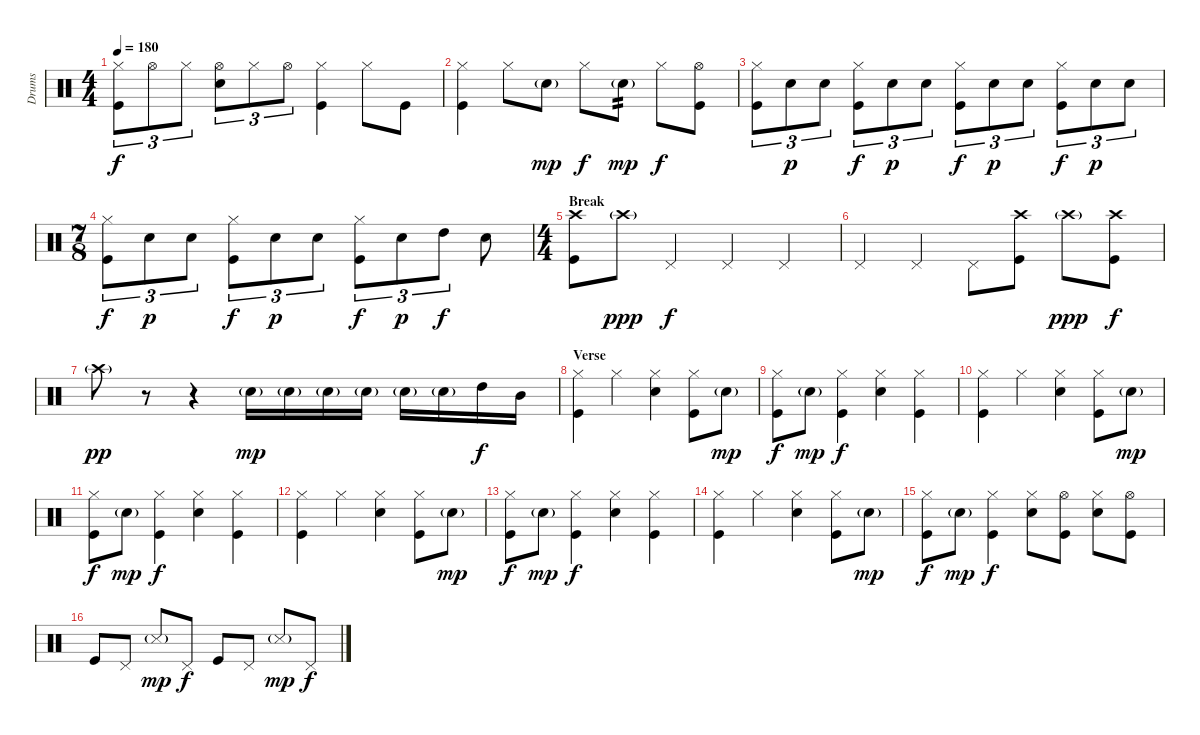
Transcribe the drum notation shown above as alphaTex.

\track ("Drums" "Drums") {instrument percussion}
\staff {score}
\articulation defaults
\ts (4 4)
\tempo 180
\clef neutral
\ks c
("Hi-Hat (closed)" "Kick (hit)").8{tu (3 2) dy f} "Hi-Hat (open)".8{tu (3 2)} "Hi-Hat (closed)".8{tu (3 2)} ("Hi-Hat (open)" "Electric Snare (hit)").8{tu (3 2)} "Hi-Hat (closed)".8{tu (3 2)} "Hi-Hat (open)".8{tu (3 2)} ("Hi-Hat (closed)" "Kick (hit)").4 "Hi-Hat (closed)".8 "Kick (hit)".8 |
("Hi-Hat (closed)" "Kick (hit)").4 "Hi-Hat (closed)".8 "Electric Snare (hit)"{g}.8{dy mp} "Hi-Hat (closed)".8{dy f} "Electric Snare (hit)"{g}.8{tp 2 dy mp} "Hi-Hat (closed)".8{dy f} ("Hi-Hat (open)" "Kick (hit)").8 |
("Hi-Hat (closed)" "Kick (hit)").8{tu (3 2)} "Electric Snare (hit)".8{tu (3 2) dy p} "Electric Snare (hit)".8{tu (3 2)} ("Hi-Hat (closed)" "Kick (hit)").8{tu (3 2) dy f} "Electric Snare (hit)".8{tu (3 2) dy p} "Electric Snare (hit)".8{tu (3 2)} ("Hi-Hat (closed)" "Kick (hit)").8{tu (3 2) dy f} "Electric Snare (hit)".8{tu (3 2) dy p} "Electric Snare (hit)".8{tu (3 2)} ("Hi-Hat (closed)" "Kick (hit)").8{tu (3 2) dy f} "Electric Snare (hit)".8{tu (3 2) dy p} "Electric Snare (hit)".8{tu (3 2)} |
\ts (7 8)
("Hi-Hat (closed)" "Kick (hit)").8{tu (3 2) dy f} "Electric Snare (hit)".8{tu (3 2) dy p} "Electric Snare (hit)".8{tu (3 2)} ("Hi-Hat (closed)" "Kick (hit)").8{tu (3 2) dy f} "Electric Snare (hit)".8{tu (3 2) dy p} "Electric Snare (hit)".8{tu (3 2)} ("Hi-Hat (closed)" "Kick (hit)").8{tu (3 2) dy f} "Electric Snare (hit)".8{tu (3 2) dy p} "High Tom (hit)".8{tu (3 2) dy f} "Electric Snare (hit)".8 |
\ts (4 4)
\section ("" "Break")
("Crash high (hit)" "Kick (hit)").8 "Crash high (hit)"{g}.8{dy ppp} "Pedal Hi-Hat (hit)".4{dy f} "Pedal Hi-Hat (hit)".4 "Pedal Hi-Hat (hit)".4 |
"Pedal Hi-Hat (hit)".4 "Pedal Hi-Hat (hit)".4 "Pedal Hi-Hat (hit)".8 ("Crash high (hit)" "Kick (hit)").8 "Crash high (hit)"{g}.8{dy ppp} ("Crash high (hit)" "Kick (hit)").8{dy f} |
"Crash high (hit)"{g}.8{dy pp} r.8 r.4 "Electric Snare (hit)"{g}.16{dy mp} "Electric Snare (hit)"{g}.16 "Electric Snare (hit)"{g}.16 "Electric Snare (hit)"{g}.16 "Electric Snare (hit)"{g}.16 "Electric Snare (hit)"{g}.16 "High Tom (hit)".16{dy f} "Mid Tom (hit)".16 |
\section ("" "Verse")
("Hi-Hat (closed)" "Kick (hit)").4 "Hi-Hat (closed)".4 ("Hi-Hat (closed)" "Electric Snare (hit)").4 ("Hi-Hat (closed)" "Kick (hit)").8 "Electric Snare (hit)"{g}.8{dy mp} |
("Hi-Hat (closed)" "Kick (hit)").8{dy f} "Electric Snare (hit)"{g}.8{dy mp} ("Hi-Hat (closed)" "Kick (hit)").4{dy f} ("Hi-Hat (closed)" "Electric Snare (hit)").4 ("Hi-Hat (closed)" "Kick (hit)").4 |
("Hi-Hat (closed)" "Kick (hit)").4 "Hi-Hat (closed)".4 ("Hi-Hat (closed)" "Electric Snare (hit)").4 ("Hi-Hat (closed)" "Kick (hit)").8 "Electric Snare (hit)"{g}.8{dy mp} |
("Hi-Hat (closed)" "Kick (hit)").8{dy f} "Electric Snare (hit)"{g}.8{dy mp} ("Hi-Hat (closed)" "Kick (hit)").4{dy f} ("Hi-Hat (closed)" "Electric Snare (hit)").4 ("Hi-Hat (closed)" "Kick (hit)").4 |
("Hi-Hat (closed)" "Kick (hit)").4 "Hi-Hat (closed)".4 ("Hi-Hat (closed)" "Electric Snare (hit)").4 ("Hi-Hat (closed)" "Kick (hit)").8 "Electric Snare (hit)"{g}.8{dy mp} |
("Hi-Hat (closed)" "Kick (hit)").8{dy f} "Electric Snare (hit)"{g}.8{dy mp} ("Hi-Hat (closed)" "Kick (hit)").4{dy f} ("Hi-Hat (closed)" "Electric Snare (hit)").4 ("Hi-Hat (closed)" "Kick (hit)").4 |
("Hi-Hat (closed)" "Kick (hit)").4 "Hi-Hat (closed)".4 ("Hi-Hat (closed)" "Electric Snare (hit)").4 ("Hi-Hat (closed)" "Kick (hit)").8 "Electric Snare (hit)"{g}.8{dy mp} |
("Hi-Hat (closed)" "Kick (hit)").8{dy f} "Electric Snare (hit)"{g}.8{dy mp} ("Hi-Hat (closed)" "Kick (hit)").4{dy f} ("Hi-Hat (closed)" "Electric Snare (hit)").8 ("Hi-Hat (open)" "Kick (hit)").8 ("Hi-Hat (closed)" "Electric Snare (hit)").8 ("Hi-Hat (open)" "Kick (hit)").8 |
"Kick (hit)".8 "Pedal Hi-Hat (hit)".8 "Snare (side stick) 3"{g}.8{dy mp} "Pedal Hi-Hat (hit)".8{dy f} "Kick (hit)".8 "Pedal Hi-Hat (hit)".8 "Snare (side stick) 3"{g}.8{dy mp} "Pedal Hi-Hat (hit)".8{dy f}
